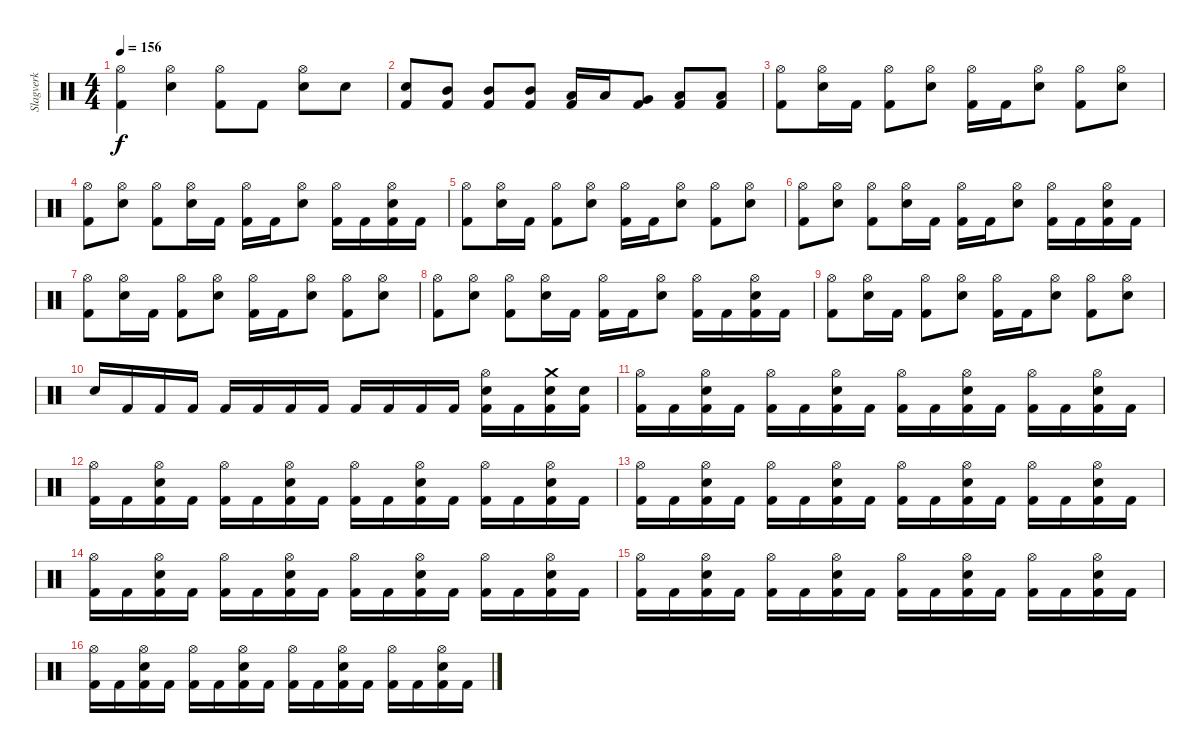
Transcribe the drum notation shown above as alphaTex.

\track ("Slagverk" "Slagverk") {instrument percussion}
\staff {score}
\articulation defaults
\ts (4 4)
\tempo 156
\clef neutral
\ks c
("Hi-Hat (open)" "Kick (hit) 2").4{dy f} ("Hi-Hat (open)" "Snare (hit) 2").4 ("Hi-Hat (open)" "Kick (hit) 2").8 "Kick (hit) 2".8 ("Snare (hit) 2" "Hi-Hat (open)").8 "Snare (hit) 2".8 |
("Kick (hit) 2" "Snare (hit) 2").8 ("Kick (hit) 2" "Mid Tom (hit)").8 ("Kick (hit) 2" "Mid Tom (hit)").8 ("Kick (hit) 2" "Mid Tom (hit)").8 ("Kick (hit) 2" "Low Tom (hit)").16 "Low Tom (hit)".16 ("Kick (hit) 2" "Very Low Tom (hit)").8 ("Kick (hit) 2" "Low Floor Tom (hit)").8 ("Kick (hit) 2" "Low Floor Tom (hit)").8 |
("Kick (hit) 2" "Hi-Hat (open)").8 ("Snare (hit) 2" "Hi-Hat (open)").16 "Kick (hit) 2".16 ("Kick (hit) 2" "Hi-Hat (open)").8 ("Snare (hit) 2" "Hi-Hat (open)").8 ("Kick (hit) 2" "Hi-Hat (open)").16 "Kick (hit) 2".16 ("Snare (hit) 2" "Hi-Hat (open)").8 ("Kick (hit) 2" "Hi-Hat (open)").8 ("Snare (hit) 2" "Hi-Hat (open)").8 |
("Kick (hit) 2" "Hi-Hat (open)").8 ("Snare (hit) 2" "Hi-Hat (open)").8 ("Kick (hit) 2" "Hi-Hat (open)").8 ("Snare (hit) 2" "Hi-Hat (open)").16 "Kick (hit) 2".16 ("Kick (hit) 2" "Hi-Hat (open)").16 "Kick (hit) 2".16 ("Snare (hit) 2" "Hi-Hat (open)").8 ("Kick (hit) 2" "Hi-Hat (open)").16 "Kick (hit) 2".16 ("Kick (hit) 2" "Snare (hit) 2" "Hi-Hat (open)").16 "Kick (hit) 2".16 |
("Kick (hit) 2" "Hi-Hat (open)").8 ("Snare (hit) 2" "Hi-Hat (open)").16 "Kick (hit) 2".16 ("Kick (hit) 2" "Hi-Hat (open)").8 ("Snare (hit) 2" "Hi-Hat (open)").8 ("Kick (hit) 2" "Hi-Hat (open)").16 "Kick (hit) 2".16 ("Snare (hit) 2" "Hi-Hat (open)").8 ("Kick (hit) 2" "Hi-Hat (open)").8 ("Snare (hit) 2" "Hi-Hat (open)").8 |
("Kick (hit) 2" "Hi-Hat (open)").8 ("Snare (hit) 2" "Hi-Hat (open)").8 ("Kick (hit) 2" "Hi-Hat (open)").8 ("Snare (hit) 2" "Hi-Hat (open)").16 "Kick (hit) 2".16 ("Kick (hit) 2" "Hi-Hat (open)").16 "Kick (hit) 2".16 ("Snare (hit) 2" "Hi-Hat (open)").8 ("Kick (hit) 2" "Hi-Hat (open)").16 "Kick (hit) 2".16 ("Kick (hit) 2" "Snare (hit) 2" "Hi-Hat (open)").16 "Kick (hit) 2".16 |
("Kick (hit) 2" "Hi-Hat (open)").8 ("Snare (hit) 2" "Hi-Hat (open)").16 "Kick (hit) 2".16 ("Kick (hit) 2" "Hi-Hat (open)").8 ("Snare (hit) 2" "Hi-Hat (open)").8 ("Kick (hit) 2" "Hi-Hat (open)").16 "Kick (hit) 2".16 ("Snare (hit) 2" "Hi-Hat (open)").8 ("Kick (hit) 2" "Hi-Hat (open)").8 ("Snare (hit) 2" "Hi-Hat (open)").8 |
("Kick (hit) 2" "Hi-Hat (open)").8 ("Snare (hit) 2" "Hi-Hat (open)").8 ("Kick (hit) 2" "Hi-Hat (open)").8 ("Snare (hit) 2" "Hi-Hat (open)").16 "Kick (hit) 2".16 ("Kick (hit) 2" "Hi-Hat (open)").16 "Kick (hit) 2".16 ("Snare (hit) 2" "Hi-Hat (open)").8 ("Kick (hit) 2" "Hi-Hat (open)").16 "Kick (hit) 2".16 ("Kick (hit) 2" "Snare (hit) 2" "Hi-Hat (open)").16 "Kick (hit) 2".16 |
("Kick (hit) 2" "Hi-Hat (open)").8 ("Snare (hit) 2" "Hi-Hat (open)").16 "Kick (hit) 2".16 ("Kick (hit) 2" "Hi-Hat (open)").8 ("Snare (hit) 2" "Hi-Hat (open)").8 ("Kick (hit) 2" "Hi-Hat (open)").16 "Kick (hit) 2".16 ("Snare (hit) 2" "Hi-Hat (open)").8 ("Kick (hit) 2" "Hi-Hat (open)").8 ("Snare (hit) 2" "Hi-Hat (open)").8 |
"Snare (hit) 2".16 "Kick (hit) 2".16 "Kick (hit) 2".16 "Kick (hit) 2".16 "Kick (hit) 2".16 "Kick (hit) 2".16 "Kick (hit) 2".16 "Kick (hit) 2".16 "Kick (hit) 2".16 "Kick (hit) 2".16 "Kick (hit) 2".16 "Kick (hit) 2".16 ("Hi-Hat (open)" "Electric Snare (hit)" "Kick (hit) 2").16 "Kick (hit) 2".16 ("Crash medium (hit)" "Electric Snare (hit)" "Kick (hit) 2").16 ("Electric Snare (hit)" "Kick (hit) 2").16 |
("Hi-Hat (open)" "Kick (hit) 2").16 "Kick (hit) 2".16 ("Snare (hit) 2" "Hi-Hat (open)" "Kick (hit) 2").16 "Kick (hit) 2".16 ("Hi-Hat (open)" "Kick (hit) 2").16 "Kick (hit) 2".16 ("Snare (hit) 2" "Hi-Hat (open)" "Kick (hit) 2").16 "Kick (hit) 2".16 ("Hi-Hat (open)" "Kick (hit) 2").16 "Kick (hit) 2".16 ("Snare (hit) 2" "Hi-Hat (open)" "Kick (hit) 2").16 "Kick (hit) 2".16 ("Hi-Hat (open)" "Kick (hit) 2").16 "Kick (hit) 2".16 ("Snare (hit) 2" "Hi-Hat (open)" "Kick (hit) 2").16 "Kick (hit) 2".16 |
("Hi-Hat (open)" "Kick (hit) 2").16 "Kick (hit) 2".16 ("Snare (hit) 2" "Hi-Hat (open)" "Kick (hit) 2").16 "Kick (hit) 2".16 ("Hi-Hat (open)" "Kick (hit) 2").16 "Kick (hit) 2".16 ("Snare (hit) 2" "Hi-Hat (open)" "Kick (hit) 2").16 "Kick (hit) 2".16 ("Hi-Hat (open)" "Kick (hit) 2").16 "Kick (hit) 2".16 ("Snare (hit) 2" "Hi-Hat (open)" "Kick (hit) 2").16 "Kick (hit) 2".16 ("Hi-Hat (open)" "Kick (hit) 2").16 "Kick (hit) 2".16 ("Snare (hit) 2" "Hi-Hat (open)" "Kick (hit) 2").16 "Kick (hit) 2".16 |
("Hi-Hat (open)" "Kick (hit) 2").16 "Kick (hit) 2".16 ("Snare (hit) 2" "Hi-Hat (open)" "Kick (hit) 2").16 "Kick (hit) 2".16 ("Hi-Hat (open)" "Kick (hit) 2").16 "Kick (hit) 2".16 ("Snare (hit) 2" "Hi-Hat (open)" "Kick (hit) 2").16 "Kick (hit) 2".16 ("Hi-Hat (open)" "Kick (hit) 2").16 "Kick (hit) 2".16 ("Snare (hit) 2" "Hi-Hat (open)" "Kick (hit) 2").16 "Kick (hit) 2".16 ("Hi-Hat (open)" "Kick (hit) 2").16 "Kick (hit) 2".16 ("Snare (hit) 2" "Hi-Hat (open)" "Kick (hit) 2").16 "Kick (hit) 2".16 |
("Hi-Hat (open)" "Kick (hit) 2").16 "Kick (hit) 2".16 ("Snare (hit) 2" "Hi-Hat (open)" "Kick (hit) 2").16 "Kick (hit) 2".16 ("Hi-Hat (open)" "Kick (hit) 2").16 "Kick (hit) 2".16 ("Snare (hit) 2" "Hi-Hat (open)" "Kick (hit) 2").16 "Kick (hit) 2".16 ("Hi-Hat (open)" "Kick (hit) 2").16 "Kick (hit) 2".16 ("Snare (hit) 2" "Hi-Hat (open)" "Kick (hit) 2").16 "Kick (hit) 2".16 ("Hi-Hat (open)" "Kick (hit) 2").16 "Kick (hit) 2".16 ("Snare (hit) 2" "Hi-Hat (open)" "Kick (hit) 2").16 "Kick (hit) 2".16 |
("Hi-Hat (open)" "Kick (hit) 2").16 "Kick (hit) 2".16 ("Snare (hit) 2" "Hi-Hat (open)" "Kick (hit) 2").16 "Kick (hit) 2".16 ("Hi-Hat (open)" "Kick (hit) 2").16 "Kick (hit) 2".16 ("Snare (hit) 2" "Hi-Hat (open)" "Kick (hit) 2").16 "Kick (hit) 2".16 ("Hi-Hat (open)" "Kick (hit) 2").16 "Kick (hit) 2".16 ("Snare (hit) 2" "Hi-Hat (open)" "Kick (hit) 2").16 "Kick (hit) 2".16 ("Hi-Hat (open)" "Kick (hit) 2").16 "Kick (hit) 2".16 ("Snare (hit) 2" "Hi-Hat (open)" "Kick (hit) 2").16 "Kick (hit) 2".16 |
("Hi-Hat (open)" "Kick (hit) 2").16 "Kick (hit) 2".16 ("Snare (hit) 2" "Hi-Hat (open)" "Kick (hit) 2").16 "Kick (hit) 2".16 ("Hi-Hat (open)" "Kick (hit) 2").16 "Kick (hit) 2".16 ("Snare (hit) 2" "Hi-Hat (open)" "Kick (hit) 2").16 "Kick (hit) 2".16 ("Hi-Hat (open)" "Kick (hit) 2").16 "Kick (hit) 2".16 ("Snare (hit) 2" "Hi-Hat (open)" "Kick (hit) 2").16 "Kick (hit) 2".16 ("Hi-Hat (open)" "Kick (hit) 2").16 "Kick (hit) 2".16 ("Snare (hit) 2" "Hi-Hat (open)" "Kick (hit) 2").16 "Kick (hit) 2".16
